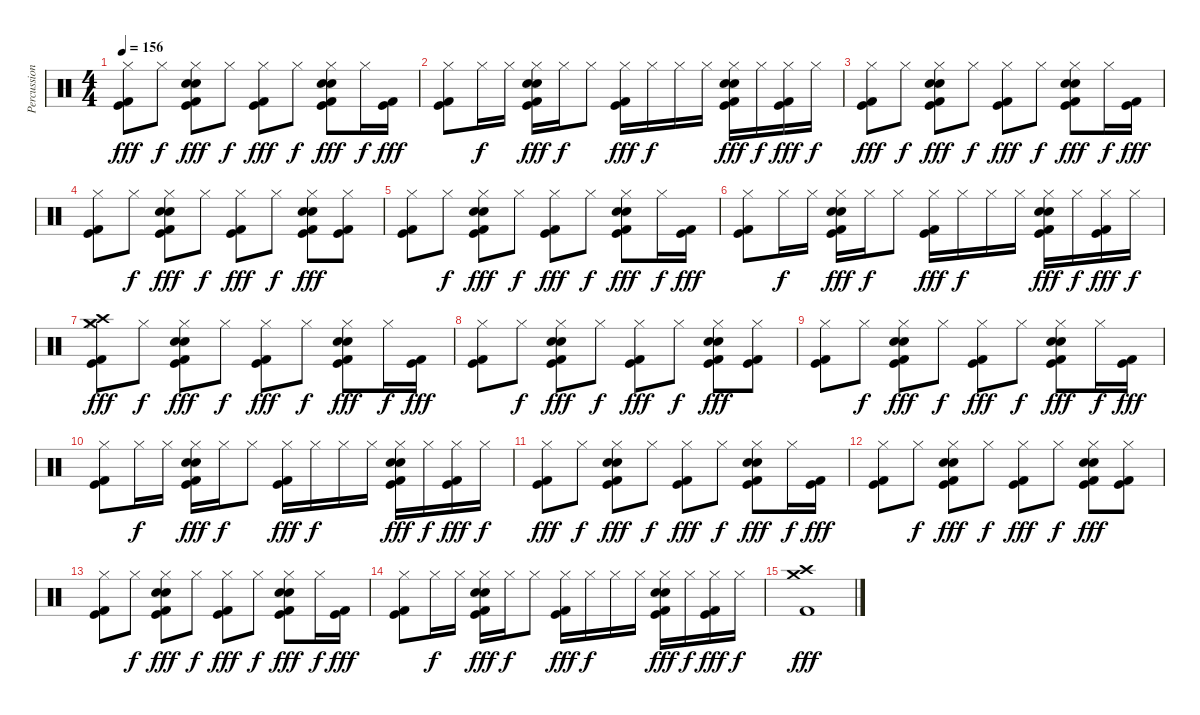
\track ("Percussion" "Percussion") {instrument percussion}
\staff {score}
\articulation defaults
\ts (4 4)
\tempo 156
\clef neutral
\ks c
("Hi-Hat (closed)" "Kick (hit)" "Kick (hit) 2").8{dy fff} "Hi-Hat (closed)".8{dy f} ("Hi-Hat (closed)" "Kick (hit)" "Kick (hit) 2" "Electric Snare (hit)" "Snare (hit) 2").8{dy fff} "Hi-Hat (closed)".8{dy f} ("Hi-Hat (closed)" "Kick (hit)" "Kick (hit) 2").8{dy fff} "Hi-Hat (closed)".8{dy f} ("Hi-Hat (closed)" "Kick (hit)" "Kick (hit) 2" "Electric Snare (hit)" "Snare (hit) 2").8{dy fff} "Hi-Hat (closed)".16{dy f} ("Kick (hit)" "Kick (hit) 2").16{dy fff} |
("Hi-Hat (closed)" "Kick (hit)" "Kick (hit) 2").8 "Hi-Hat (closed)".16{dy f} "Hi-Hat (closed)".16 ("Hi-Hat (closed)" "Kick (hit)" "Kick (hit) 2" "Electric Snare (hit)" "Snare (hit) 2").16{dy fff} "Hi-Hat (closed)".16{dy f} "Hi-Hat (closed)".8 ("Hi-Hat (closed)" "Kick (hit)" "Kick (hit) 2").16{dy fff} "Hi-Hat (closed)".16{dy f} "Hi-Hat (closed)".16 "Hi-Hat (closed)".16 ("Hi-Hat (closed)" "Kick (hit)" "Kick (hit) 2" "Electric Snare (hit)" "Snare (hit) 2").16{dy fff} "Hi-Hat (closed)".16{dy f} ("Hi-Hat (closed)" "Kick (hit)" "Kick (hit) 2").16{dy fff} "Hi-Hat (closed)".16{dy f} |
("Hi-Hat (closed)" "Kick (hit)" "Kick (hit) 2").8{dy fff} "Hi-Hat (closed)".8{dy f} ("Hi-Hat (closed)" "Kick (hit)" "Kick (hit) 2" "Electric Snare (hit)" "Snare (hit) 2").8{dy fff} "Hi-Hat (closed)".8{dy f} ("Hi-Hat (closed)" "Kick (hit)" "Kick (hit) 2").8{dy fff} "Hi-Hat (closed)".8{dy f} ("Hi-Hat (closed)" "Kick (hit)" "Kick (hit) 2" "Electric Snare (hit)" "Snare (hit) 2").8{dy fff} "Hi-Hat (closed)".16{dy f} ("Kick (hit)" "Kick (hit) 2").16{dy fff} |
("Hi-Hat (closed)" "Kick (hit)" "Kick (hit) 2").8 "Hi-Hat (closed)".8{dy f} ("Hi-Hat (closed)" "Kick (hit)" "Kick (hit) 2" "Electric Snare (hit)" "Snare (hit) 2").8{dy fff} "Hi-Hat (closed)".8{dy f} ("Hi-Hat (closed)" "Kick (hit)" "Kick (hit) 2").8{dy fff} "Hi-Hat (closed)".8{dy f} ("Hi-Hat (closed)" "Kick (hit)" "Kick (hit) 2" "Electric Snare (hit)" "Snare (hit) 2").8{dy fff} ("Hi-Hat (closed)" "Kick (hit)" "Kick (hit) 2").8 |
("Hi-Hat (closed)" "Kick (hit)" "Kick (hit) 2").8 "Hi-Hat (closed)".8{dy f} ("Hi-Hat (closed)" "Kick (hit)" "Kick (hit) 2" "Electric Snare (hit)" "Snare (hit) 2").8{dy fff} "Hi-Hat (closed)".8{dy f} ("Hi-Hat (closed)" "Kick (hit)" "Kick (hit) 2").8{dy fff} "Hi-Hat (closed)".8{dy f} ("Hi-Hat (closed)" "Kick (hit)" "Kick (hit) 2" "Electric Snare (hit)" "Snare (hit) 2").8{dy fff} "Hi-Hat (closed)".16{dy f} ("Kick (hit)" "Kick (hit) 2").16{dy fff} |
("Hi-Hat (closed)" "Kick (hit)" "Kick (hit) 2").8 "Hi-Hat (closed)".16{dy f} "Hi-Hat (closed)".16 ("Hi-Hat (closed)" "Kick (hit)" "Kick (hit) 2" "Electric Snare (hit)" "Snare (hit) 2").16{dy fff} "Hi-Hat (closed)".16{dy f} "Hi-Hat (closed)".8 ("Hi-Hat (closed)" "Kick (hit)" "Kick (hit) 2").16{dy fff} "Hi-Hat (closed)".16{dy f} "Hi-Hat (closed)".16 "Hi-Hat (closed)".16 ("Hi-Hat (closed)" "Kick (hit)" "Kick (hit) 2" "Electric Snare (hit)" "Snare (hit) 2").16{dy fff} "Hi-Hat (closed)".16{dy f} ("Hi-Hat (closed)" "Kick (hit)" "Kick (hit) 2").16{dy fff} "Hi-Hat (closed)".16{dy f} |
("Crash high (hit)" "Hi-Hat (closed)" "Kick (hit)" "Kick (hit) 2" "Crash medium (hit)").8{dy fff} "Hi-Hat (closed)".8{dy f} ("Hi-Hat (closed)" "Kick (hit)" "Kick (hit) 2" "Electric Snare (hit)" "Snare (hit) 2").8{dy fff} "Hi-Hat (closed)".8{dy f} ("Hi-Hat (closed)" "Kick (hit)" "Kick (hit) 2").8{dy fff} "Hi-Hat (closed)".8{dy f} ("Hi-Hat (closed)" "Kick (hit)" "Kick (hit) 2" "Electric Snare (hit)" "Snare (hit) 2").8{dy fff} "Hi-Hat (closed)".16{dy f} ("Kick (hit)" "Kick (hit) 2").16{dy fff} |
("Hi-Hat (closed)" "Kick (hit)" "Kick (hit) 2").8 "Hi-Hat (closed)".8{dy f} ("Hi-Hat (closed)" "Kick (hit)" "Kick (hit) 2" "Electric Snare (hit)" "Snare (hit) 2").8{dy fff} "Hi-Hat (closed)".8{dy f} ("Hi-Hat (closed)" "Kick (hit)" "Kick (hit) 2").8{dy fff} "Hi-Hat (closed)".8{dy f} ("Hi-Hat (closed)" "Kick (hit)" "Kick (hit) 2" "Electric Snare (hit)" "Snare (hit) 2").8{dy fff} ("Hi-Hat (closed)" "Kick (hit)" "Kick (hit) 2").8 |
("Hi-Hat (closed)" "Kick (hit)" "Kick (hit) 2").8 "Hi-Hat (closed)".8{dy f} ("Hi-Hat (closed)" "Kick (hit)" "Kick (hit) 2" "Electric Snare (hit)" "Snare (hit) 2").8{dy fff} "Hi-Hat (closed)".8{dy f} ("Hi-Hat (closed)" "Kick (hit)" "Kick (hit) 2").8{dy fff} "Hi-Hat (closed)".8{dy f} ("Hi-Hat (closed)" "Kick (hit)" "Kick (hit) 2" "Electric Snare (hit)" "Snare (hit) 2").8{dy fff} "Hi-Hat (closed)".16{dy f} ("Kick (hit)" "Kick (hit) 2").16{dy fff} |
("Hi-Hat (closed)" "Kick (hit)" "Kick (hit) 2").8 "Hi-Hat (closed)".16{dy f} "Hi-Hat (closed)".16 ("Hi-Hat (closed)" "Kick (hit)" "Kick (hit) 2" "Electric Snare (hit)" "Snare (hit) 2").16{dy fff} "Hi-Hat (closed)".16{dy f} "Hi-Hat (closed)".8 ("Hi-Hat (closed)" "Kick (hit)" "Kick (hit) 2").16{dy fff} "Hi-Hat (closed)".16{dy f} "Hi-Hat (closed)".16 "Hi-Hat (closed)".16 ("Hi-Hat (closed)" "Kick (hit)" "Kick (hit) 2" "Electric Snare (hit)" "Snare (hit) 2").16{dy fff} "Hi-Hat (closed)".16{dy f} ("Hi-Hat (closed)" "Kick (hit)" "Kick (hit) 2").16{dy fff} "Hi-Hat (closed)".16{dy f} |
("Hi-Hat (closed)" "Kick (hit)" "Kick (hit) 2").8{dy fff} "Hi-Hat (closed)".8{dy f} ("Hi-Hat (closed)" "Kick (hit)" "Kick (hit) 2" "Electric Snare (hit)" "Snare (hit) 2").8{dy fff} "Hi-Hat (closed)".8{dy f} ("Hi-Hat (closed)" "Kick (hit)" "Kick (hit) 2").8{dy fff} "Hi-Hat (closed)".8{dy f} ("Hi-Hat (closed)" "Kick (hit)" "Kick (hit) 2" "Electric Snare (hit)" "Snare (hit) 2").8{dy fff} "Hi-Hat (closed)".16{dy f} ("Kick (hit)" "Kick (hit) 2").16{dy fff} |
("Hi-Hat (closed)" "Kick (hit)" "Kick (hit) 2").8 "Hi-Hat (closed)".8{dy f} ("Hi-Hat (closed)" "Kick (hit)" "Kick (hit) 2" "Electric Snare (hit)" "Snare (hit) 2").8{dy fff} "Hi-Hat (closed)".8{dy f} ("Hi-Hat (closed)" "Kick (hit)" "Kick (hit) 2").8{dy fff} "Hi-Hat (closed)".8{dy f} ("Hi-Hat (closed)" "Kick (hit)" "Kick (hit) 2" "Electric Snare (hit)" "Snare (hit) 2").8{dy fff} ("Hi-Hat (closed)" "Kick (hit)" "Kick (hit) 2").8 |
("Hi-Hat (closed)" "Kick (hit)" "Kick (hit) 2").8 "Hi-Hat (closed)".8{dy f} ("Hi-Hat (closed)" "Kick (hit)" "Kick (hit) 2" "Electric Snare (hit)" "Snare (hit) 2").8{dy fff} "Hi-Hat (closed)".8{dy f} ("Hi-Hat (closed)" "Kick (hit)" "Kick (hit) 2").8{dy fff} "Hi-Hat (closed)".8{dy f} ("Hi-Hat (closed)" "Kick (hit)" "Kick (hit) 2" "Electric Snare (hit)" "Snare (hit) 2").8{dy fff} "Hi-Hat (closed)".16{dy f} ("Kick (hit)" "Kick (hit) 2").16{dy fff} |
("Hi-Hat (closed)" "Kick (hit)" "Kick (hit) 2").8 "Hi-Hat (closed)".16{dy f} "Hi-Hat (closed)".16 ("Hi-Hat (closed)" "Kick (hit)" "Kick (hit) 2" "Electric Snare (hit)" "Snare (hit) 2").16{dy fff} "Hi-Hat (closed)".16{dy f} "Hi-Hat (closed)".8 ("Hi-Hat (closed)" "Kick (hit)" "Kick (hit) 2").16{dy fff} "Hi-Hat (closed)".16{dy f} "Hi-Hat (closed)".16 "Hi-Hat (closed)".16 ("Hi-Hat (closed)" "Kick (hit)" "Kick (hit) 2" "Electric Snare (hit)" "Snare (hit) 2").16{dy fff} "Hi-Hat (closed)".16{dy f} ("Hi-Hat (closed)" "Kick (hit)" "Kick (hit) 2").16{dy fff} "Hi-Hat (closed)".16{dy f} |
("Crash high (hit)" "Crash medium (hit)" "Kick (hit) 2").1{dy fff}
